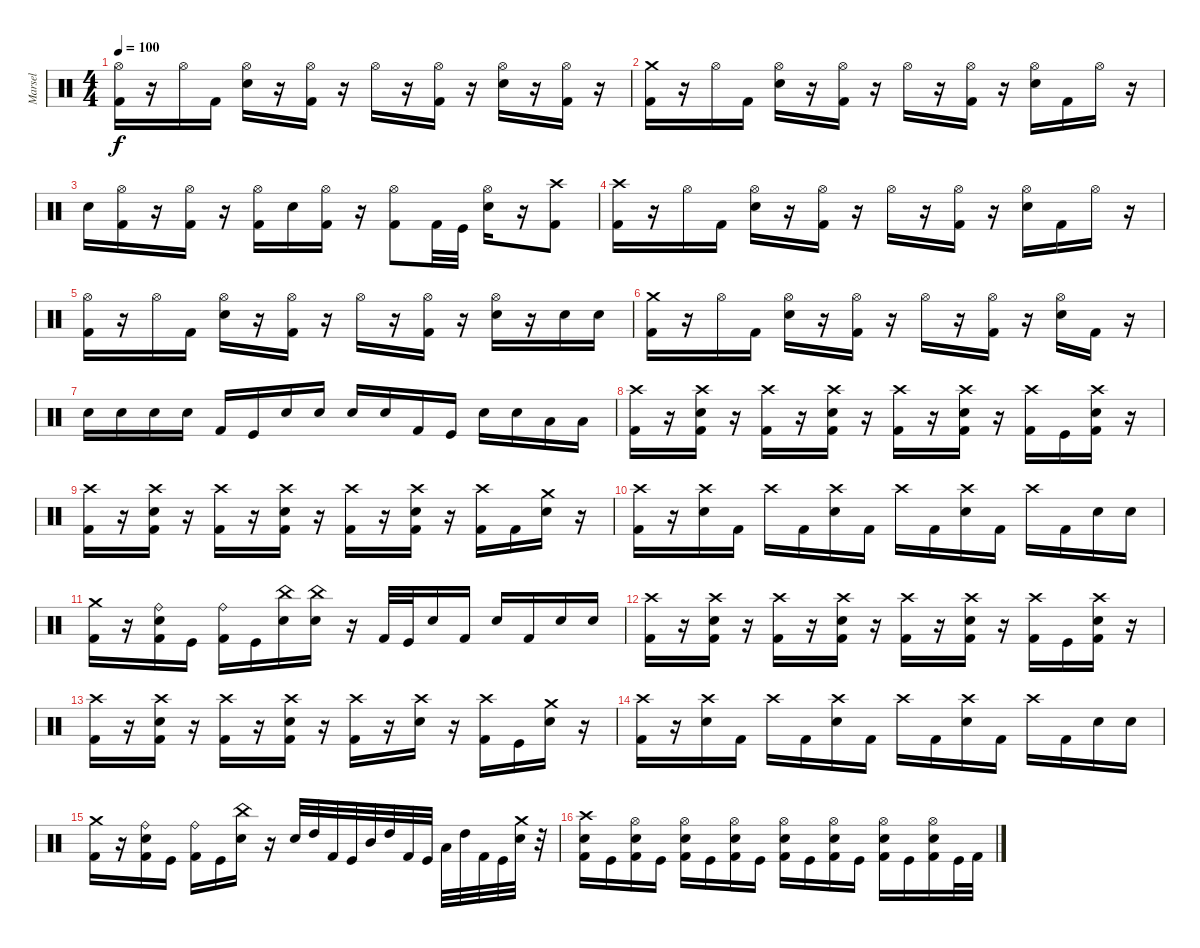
\track ("Marsel" "Marsel") {instrument percussion}
\staff {score}
\articulation defaults
\ts (4 4)
\tempo 100
\clef neutral
\ks c
("Hi-Hat (open)" "Kick (hit) 2").16{dy f} r.16 "Hi-Hat (open)".16 "Kick (hit) 2".16 ("Hi-Hat (open)" "Snare (hit) 2").16 r.16 ("Hi-Hat (open)" "Kick (hit) 2").16 r.16 "Hi-Hat (open)".16 r.16 ("Hi-Hat (open)" "Kick (hit) 2").16 r.16 ("Hi-Hat (open)" "Snare (hit) 2").16 r.16 ("Hi-Hat (open)" "Kick (hit) 2").16 r.16 |
("Crash medium (hit)" "Kick (hit) 2").16 r.16 "Hi-Hat (open)".16 "Kick (hit) 2".16 ("Hi-Hat (open)" "Snare (hit) 2").16 r.16 ("Hi-Hat (open)" "Kick (hit) 2").16 r.16 "Hi-Hat (open)".16 r.16 ("Hi-Hat (open)" "Kick (hit) 2").16 r.16 ("Hi-Hat (open)" "Snare (hit) 2").16 "Kick (hit) 2".16 "Hi-Hat (open)".16 r.16 |
"Snare (hit) 2".16 ("Hi-Hat (open)" "Kick (hit) 2").16 r.16 ("Hi-Hat (open)" "Kick (hit) 2").16 r.16 ("Hi-Hat (open)" "Kick (hit) 2").16 "Snare (hit) 2".16 ("Hi-Hat (open)" "Kick (hit) 2").16 r.16 ("Hi-Hat (open)" "Kick (hit) 2").8 "Kick (hit) 2".32 "Kick (hit)".32 ("Hi-Hat (open)" "Snare (hit) 2").16 r.16 ("Crash high (hit)" "Kick (hit) 2").8 |
("Crash high (hit)" "Kick (hit) 2").16 r.16 "Hi-Hat (open)".16 "Kick (hit) 2".16 ("Hi-Hat (open)" "Snare (hit) 2").16 r.16 ("Hi-Hat (open)" "Kick (hit) 2").16 r.16 "Hi-Hat (open)".16 r.16 ("Hi-Hat (open)" "Kick (hit) 2").16 r.16 ("Hi-Hat (open)" "Snare (hit) 2").16 "Kick (hit) 2".16 "Hi-Hat (open)".16 r.16 |
("Hi-Hat (open)" "Kick (hit) 2").16 r.16 "Hi-Hat (open)".16 "Kick (hit) 2".16 ("Hi-Hat (open)" "Snare (hit) 2").16 r.16 ("Hi-Hat (open)" "Kick (hit) 2").16 r.16 "Hi-Hat (open)".16 r.16 ("Hi-Hat (open)" "Kick (hit) 2").16 r.16 ("Hi-Hat (open)" "Snare (hit) 2").16 r.16 "Snare (hit) 2".16 "Snare (hit) 2".16 |
("Crash medium (hit)" "Kick (hit) 2").16 r.16 "Hi-Hat (open)".16 "Kick (hit) 2".16 ("Hi-Hat (open)" "Snare (hit) 2").16 r.16 ("Hi-Hat (open)" "Kick (hit) 2").16 r.16 "Hi-Hat (open)".16 r.16 ("Hi-Hat (open)" "Kick (hit) 2").16 r.16 ("Hi-Hat (open)" "Snare (hit) 2").16 "Kick (hit) 2".16 r.16 |
"Snare (hit) 2".16 "Snare (hit) 2".16 "Snare (hit) 2".16 "Snare (hit) 2".16 "Kick (hit) 2".16 "Kick (hit)".16 "Snare (hit) 2".16 "Snare (hit) 2".16 "Snare (hit) 2".16 "Snare (hit) 2".16 "Kick (hit) 2".16 "Kick (hit)".16 "Snare (hit) 2".16 "Snare (hit) 2".16 "Low Tom (hit)".16 "Low Tom (hit)".16 |
("Crash high (hit)" "Kick (hit) 2").16 r.16 ("Crash high (hit)" "Snare (hit) 2" "Kick (hit) 2").16 r.16 ("Crash high (hit)" "Kick (hit) 2").16 r.16 ("Crash high (hit)" "Snare (hit) 2" "Kick (hit) 2").16 r.16 ("Crash high (hit)" "Kick (hit) 2").16 r.16 ("Crash high (hit)" "Snare (hit) 2" "Kick (hit) 2").16 r.16 ("Crash high (hit)" "Kick (hit) 2").16 "Kick (hit)".16 ("Crash high (hit)" "Snare (hit) 2" "Kick (hit) 2").16 r.16 |
("Crash high (hit)" "Kick (hit) 2").16 r.16 ("Crash high (hit)" "Snare (hit) 2" "Kick (hit) 2").16 r.16 ("Crash high (hit)" "Kick (hit) 2").16 r.16 ("Crash high (hit)" "Snare (hit) 2" "Kick (hit) 2").16 r.16 ("Crash high (hit)" "Kick (hit) 2").16 r.16 ("Crash high (hit)" "Snare (hit) 2" "Kick (hit) 2").16 r.16 ("Crash high (hit)" "Kick (hit) 2").16 "Kick (hit) 2".16 ("Crash medium (hit)" "Snare (hit) 2").16 r.16 |
("Crash high (hit)" "Kick (hit) 2").16 r.16 ("Crash high (hit)" "Snare (hit) 2").16 "Kick (hit) 2".16 "Crash high (hit)".16 "Kick (hit) 2".16 ("Crash high (hit)" "Snare (hit) 2").16 "Kick (hit) 2".16 "Crash high (hit)".16 "Kick (hit) 2".16 ("Crash high (hit)" "Snare (hit) 2").16 "Kick (hit) 2".16 "Crash high (hit)".16 "Kick (hit) 2".16 "Snare (hit) 2".16 "Snare (hit) 2".16 |
("Crash medium (hit)" "Kick (hit) 2").16 r.16 ("Ride (bell)" "Snare (hit) 2" "Kick (hit) 2").16 "Kick (hit)".16 ("Ride (bell)" "Kick (hit) 2").16 "Kick (hit)".16 ("China (hit)" "Snare (hit) 2").16 ("China (hit)" "Snare (hit) 2").16 r.16 "Kick (hit) 2".32 "Kick (hit)".32 "Snare (hit) 2".16 "Kick (hit) 2".16 "Snare (hit) 2".16 "Kick (hit) 2".16 "Snare (hit) 2".16 "Snare (hit) 2".16 |
("Crash high (hit)" "Kick (hit) 2").16 r.16 ("Crash high (hit)" "Snare (hit) 2" "Kick (hit) 2").16 r.16 ("Crash high (hit)" "Kick (hit) 2").16 r.16 ("Crash high (hit)" "Snare (hit) 2" "Kick (hit) 2").16 r.16 ("Crash high (hit)" "Kick (hit) 2").16 r.16 ("Crash high (hit)" "Snare (hit) 2" "Kick (hit) 2").16 r.16 ("Crash high (hit)" "Kick (hit) 2").16 "Kick (hit)".16 ("Crash high (hit)" "Snare (hit) 2" "Kick (hit) 2").16 r.16 |
("Crash high (hit)" "Kick (hit) 2").16 r.16 ("Crash high (hit)" "Snare (hit) 2" "Kick (hit) 2").16 r.16 ("Crash high (hit)" "Kick (hit) 2").16 r.16 ("Crash high (hit)" "Snare (hit) 2" "Kick (hit) 2").16 r.16 ("Crash high (hit)" "Kick (hit) 2").16 r.16 ("Crash high (hit)" "Snare (hit) 2").16 r.16 ("Crash high (hit)" "Kick (hit) 2").16 "Kick (hit)".16 ("Crash medium (hit)" "Snare (hit) 2").16 r.16 |
("Crash high (hit)" "Kick (hit) 2").16 r.16 ("Crash high (hit)" "Snare (hit) 2").16 "Kick (hit) 2".16 "Crash high (hit)".16 "Kick (hit) 2".16 ("Crash high (hit)" "Snare (hit) 2").16 "Kick (hit) 2".16 "Crash high (hit)".16 "Kick (hit) 2".16 ("Crash high (hit)" "Snare (hit) 2").16 "Kick (hit) 2".16 "Crash high (hit)".16 "Kick (hit) 2".16 "Snare (hit) 2".16 "Snare (hit) 2".16 |
("Crash medium (hit)" "Kick (hit) 2").16 r.16 ("Ride (bell)" "Snare (hit) 2" "Kick (hit) 2").16 "Kick (hit)".16 ("Ride (bell)" "Kick (hit) 2").16 "Kick (hit)".16 ("China (hit)" "Snare (hit) 2").16 r.16 "Snare (hit) 2".32 "High Tom (hit)".32 "Kick (hit) 2".32 "Kick (hit)".32 "Mid Tom (hit)".32 "High Tom (hit)".32 "Kick (hit) 2".32 "Kick (hit)".32 "Low Floor Tom (hit)".32 "High Tom (hit)".32 "Kick (hit) 2".32 "Kick (hit)".32 ("Crash medium (hit)" "Snare (hit) 2").32 r.32 |
("Crash high (hit)" "Snare (hit) 2" "Kick (hit) 2").16 "Kick (hit)".16 ("Hi-Hat (open)" "Snare (hit) 2" "Kick (hit) 2").16 "Kick (hit)".16 ("Hi-Hat (open)" "Snare (hit) 2" "Kick (hit) 2").16 "Kick (hit)".16 ("Hi-Hat (open)" "Snare (hit) 2" "Kick (hit) 2").16 "Kick (hit)".16 ("Hi-Hat (open)" "Snare (hit) 2" "Kick (hit) 2").16 "Kick (hit)".16 ("Hi-Hat (open)" "Snare (hit) 2" "Kick (hit) 2").16 "Kick (hit)".16 ("Hi-Hat (open)" "Snare (hit) 2" "Kick (hit) 2").16 "Kick (hit)".16 ("Hi-Hat (open)" "Snare (hit) 2" "Kick (hit) 2").16 "Kick (hit)".32 "Kick (hit) 2".32
